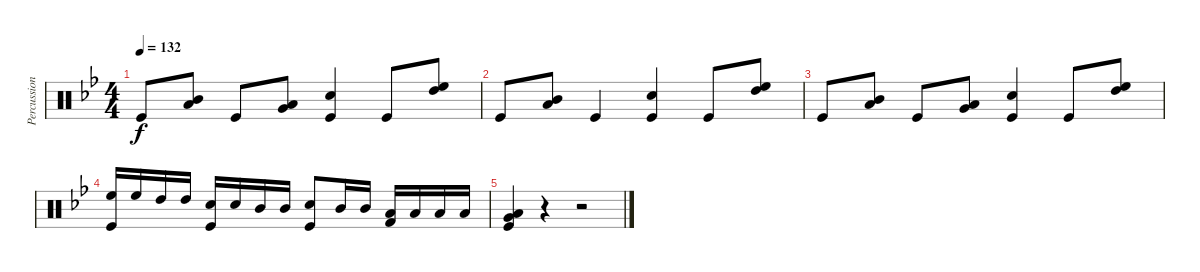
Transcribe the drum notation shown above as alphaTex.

\track ("Percussion" "Percussion") {instrument percussion}
\staff {score}
\articulation defaults
\ts (4 4)
\tempo 132
\clef neutral
\ks bb "Kick (hit)".8{dy f}
("Mid Tom (hit)" "Low Tom (hit)").8 "Kick (hit)".8 ("Very Low Tom (hit)" "Low Floor Tom (hit)").8 ("Kick (hit)" "Snare (hit) 2").4 "Kick (hit)".8 ("High Tom (hit)" "High Floor Tom (hit)").8 |
"Kick (hit)".8 ("Mid Tom (hit)" "Low Tom (hit)").8 "Kick (hit)".4 ("Kick (hit)" "Snare (hit) 2").4 "Kick (hit)".8 ("High Tom (hit)" "High Floor Tom (hit)").8 |
"Kick (hit)".8 ("Mid Tom (hit)" "Low Tom (hit)").8 "Kick (hit)".8 ("Very Low Tom (hit)" "Low Floor Tom (hit)").8 ("Kick (hit)" "Snare (hit) 2").4 "Kick (hit)".8 ("High Tom (hit)" "High Floor Tom (hit)").8 |
("Kick (hit)" "High Floor Tom (hit)").16 "High Floor Tom (hit)".16 "High Tom (hit)".16 "High Tom (hit)".16 ("Kick (hit)" "Snare (hit) 2").16 "Snare (hit) 2".16 "Mid Tom (hit)".16 "Mid Tom (hit)".16 ("Kick (hit)" "Snare (hit) 2").8 "Mid Tom (hit)".16 "Mid Tom (hit)".16 ("Low Tom (hit)" "Kick (hit) 2").16 "Low Tom (hit)".16 "Low Floor Tom (hit)".16 "Low Floor Tom (hit)".16 |
("Kick (hit)" "Low Floor Tom (hit)" "Very Low Tom (hit)").4 r.4 r.2
